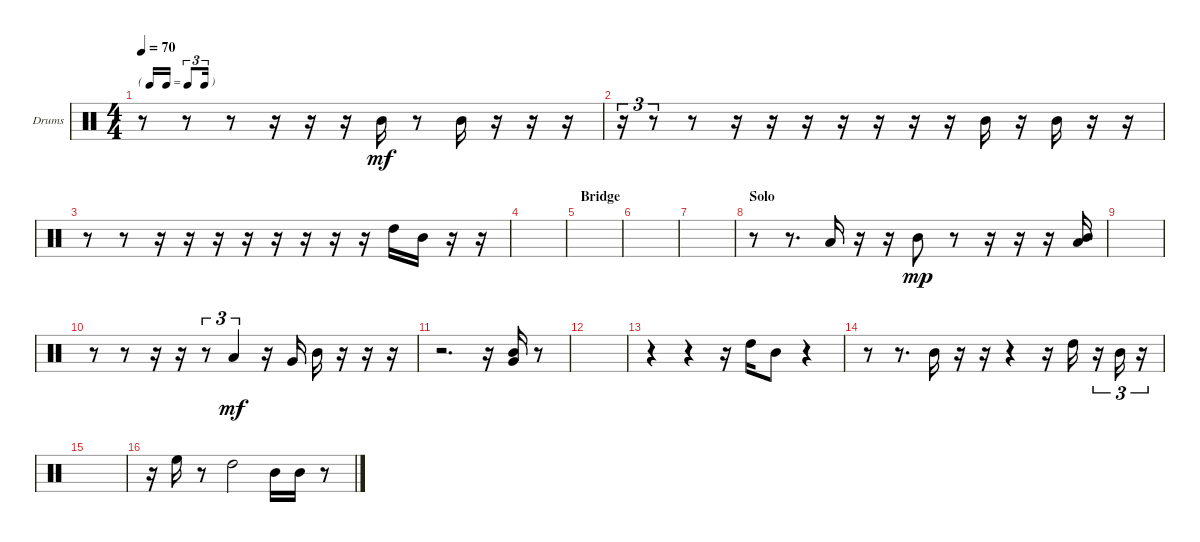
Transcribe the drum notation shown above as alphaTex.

\bracketExtendMode groupsimilarinstruments
\firstSystemTrackNameOrientation horizontal
\otherSystemsTrackNameOrientation horizontal
\track ("Tom" "Drums") {instrument percussion}
\staff {score}
\articulation defaults
\ts (4 4)
\tf triplet16th
\tempo 70
\clef neutral
\ks aminor
r.8{dy mf} r.8 r.8 r.16 r.16 r.16 "Mid Tom (hit)".16 r.8 "Mid Tom (hit)".16 r.16 r.16 r.16 |
r.16{tu (3 2)} r.8{tu (3 2)} r.8 r.16 r.16 r.16 r.16 r.16 r.16 r.16 "Mid Tom (hit)".16 r.16 "Mid Tom (hit)".16 r.16 r.16 |
r.8 r.8 r.16 r.16 r.16 r.16 r.16 r.16 r.16 r.16 "High Tom (hit)".16 "Mid Tom (hit)".16 r.16 r.16 |
|
\section ("" "Bridge")
\scale
0.333333 |
\scale
0.333333 |
\scale
0.333333 |
\section ("" "Solo")
\scale
0.333333 r.8 r.8{d} "Low Tom (hit)".16 r.16 r.16 "Mid Tom (hit)".8{dy mp} r.8 r.16 r.16 r.16 ("Mid Tom (hit)" "Low Tom (hit)").16 |
\scale
0.333333 |
\scale
0.333333 r.8 r.8 r.16 r.16 r.8{tu (3 2)} "Low Tom (hit)".4{tu (3 2) dy mf} r.16 "Very Low Tom (hit)".16 "Mid Tom (hit)".16 r.16 r.16 r.16 |
\scale
0.333333 r.2{d} r.16 ("Mid Tom (hit)" "Very Low Tom (hit)").16 r.8 |
\scale
0.333333 |
\scale
0.333333 r.4 r.4 r.16 "High Tom (hit)".16 "Mid Tom (hit)".8 r.4 |
\scale
0.333333 r.8 r.8{d} "Mid Tom (hit)".16 r.16 r.16 r.4 r.16 "High Tom (hit)".16 r.16{tu (3 2)} "Mid Tom (hit)".16{tu (3 2)} r.16{tu (3 2)} |
\scale
0.333333 |
\scale
0.333333 r.16 "High Floor Tom (hit)".16 r.8 "High Tom (hit)".2 "Mid Tom (hit)".16 "Mid Tom (hit)".16 r.8
